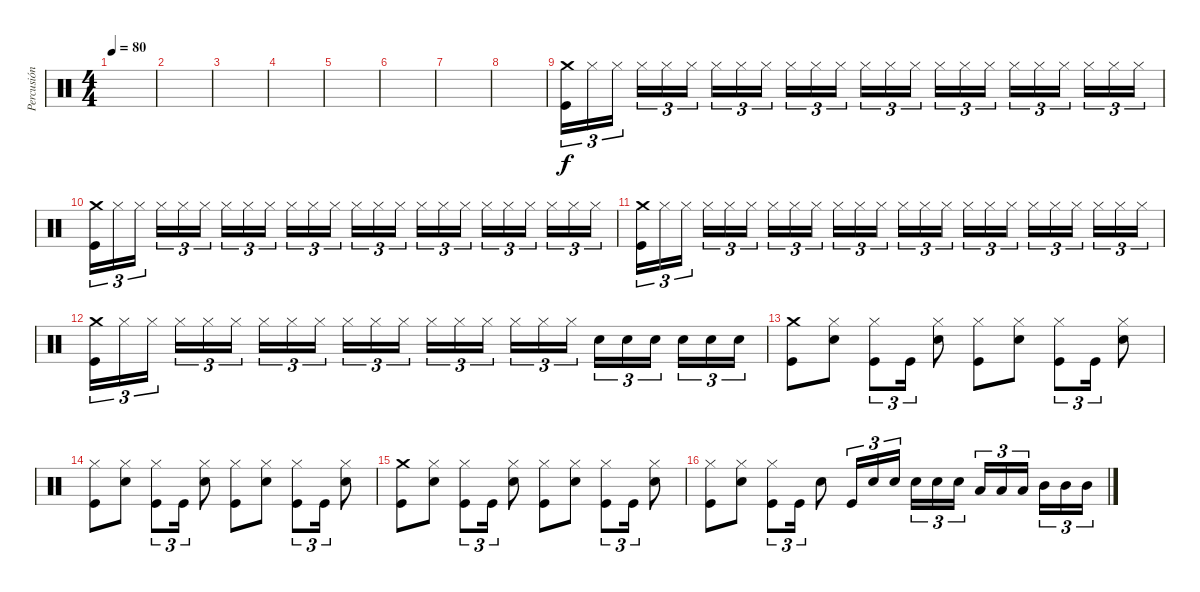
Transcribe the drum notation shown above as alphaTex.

\track ("Percusión" "Percusión") {mute instrument percussion}
\staff {score}
\articulation defaults
\ts (4 4)
\tempo 80
\clef neutral
\ks c
|
|
|
|
|
|
|
|
("Crash medium (hit)" "Kick (hit)").16{tu (3 2)} "Hi-Hat (closed)".16{tu (3 2)} "Hi-Hat (closed)".16{tu (3 2) beam splitsecondary} "Hi-Hat (closed)".16{tu (3 2)} "Hi-Hat (closed)".16{tu (3 2)} "Hi-Hat (closed)".16{tu (3 2)} "Hi-Hat (closed)".16{tu (3 2)} "Hi-Hat (closed)".16{tu (3 2)} "Hi-Hat (closed)".16{tu (3 2) beam splitsecondary} "Hi-Hat (closed)".16{tu (3 2)} "Hi-Hat (closed)".16{tu (3 2)} "Hi-Hat (closed)".16{tu (3 2)} "Hi-Hat (closed)".16{tu (3 2)} "Hi-Hat (closed)".16{tu (3 2)} "Hi-Hat (closed)".16{tu (3 2) beam splitsecondary} "Hi-Hat (closed)".16{tu (3 2)} "Hi-Hat (closed)".16{tu (3 2)} "Hi-Hat (closed)".16{tu (3 2)} "Hi-Hat (closed)".16{tu (3 2)} "Hi-Hat (closed)".16{tu (3 2)} "Hi-Hat (closed)".16{tu (3 2) beam splitsecondary} "Hi-Hat (closed)".16{tu (3 2)} "Hi-Hat (closed)".16{tu (3 2)} "Hi-Hat (closed)".16{tu (3 2)} |
("Crash medium (hit)" "Kick (hit)").16{tu (3 2)} "Hi-Hat (closed)".16{tu (3 2)} "Hi-Hat (closed)".16{tu (3 2) beam splitsecondary} "Hi-Hat (closed)".16{tu (3 2)} "Hi-Hat (closed)".16{tu (3 2)} "Hi-Hat (closed)".16{tu (3 2)} "Hi-Hat (closed)".16{tu (3 2)} "Hi-Hat (closed)".16{tu (3 2)} "Hi-Hat (closed)".16{tu (3 2) beam splitsecondary} "Hi-Hat (closed)".16{tu (3 2)} "Hi-Hat (closed)".16{tu (3 2)} "Hi-Hat (closed)".16{tu (3 2)} "Hi-Hat (closed)".16{tu (3 2)} "Hi-Hat (closed)".16{tu (3 2)} "Hi-Hat (closed)".16{tu (3 2) beam splitsecondary} "Hi-Hat (closed)".16{tu (3 2)} "Hi-Hat (closed)".16{tu (3 2)} "Hi-Hat (closed)".16{tu (3 2)} "Hi-Hat (closed)".16{tu (3 2)} "Hi-Hat (closed)".16{tu (3 2)} "Hi-Hat (closed)".16{tu (3 2) beam splitsecondary} "Hi-Hat (closed)".16{tu (3 2)} "Hi-Hat (closed)".16{tu (3 2)} "Hi-Hat (closed)".16{tu (3 2)} |
("Crash medium (hit)" "Kick (hit)").16{tu (3 2)} "Hi-Hat (closed)".16{tu (3 2)} "Hi-Hat (closed)".16{tu (3 2) beam splitsecondary} "Hi-Hat (closed)".16{tu (3 2)} "Hi-Hat (closed)".16{tu (3 2)} "Hi-Hat (closed)".16{tu (3 2)} "Hi-Hat (closed)".16{tu (3 2)} "Hi-Hat (closed)".16{tu (3 2)} "Hi-Hat (closed)".16{tu (3 2) beam splitsecondary} "Hi-Hat (closed)".16{tu (3 2)} "Hi-Hat (closed)".16{tu (3 2)} "Hi-Hat (closed)".16{tu (3 2)} "Hi-Hat (closed)".16{tu (3 2)} "Hi-Hat (closed)".16{tu (3 2)} "Hi-Hat (closed)".16{tu (3 2) beam splitsecondary} "Hi-Hat (closed)".16{tu (3 2)} "Hi-Hat (closed)".16{tu (3 2)} "Hi-Hat (closed)".16{tu (3 2)} "Hi-Hat (closed)".16{tu (3 2)} "Hi-Hat (closed)".16{tu (3 2)} "Hi-Hat (closed)".16{tu (3 2) beam splitsecondary} "Hi-Hat (closed)".16{tu (3 2)} "Hi-Hat (closed)".16{tu (3 2)} "Hi-Hat (closed)".16{tu (3 2)} |
("Crash medium (hit)" "Kick (hit)").16{tu (3 2)} "Hi-Hat (closed)".16{tu (3 2)} "Hi-Hat (closed)".16{tu (3 2) beam splitsecondary} "Hi-Hat (closed)".16{tu (3 2)} "Hi-Hat (closed)".16{tu (3 2)} "Hi-Hat (closed)".16{tu (3 2)} "Hi-Hat (closed)".16{tu (3 2)} "Hi-Hat (closed)".16{tu (3 2)} "Hi-Hat (closed)".16{tu (3 2) beam splitsecondary} "Hi-Hat (closed)".16{tu (3 2)} "Hi-Hat (closed)".16{tu (3 2)} "Hi-Hat (closed)".16{tu (3 2)} "Hi-Hat (closed)".16{tu (3 2)} "Hi-Hat (closed)".16{tu (3 2)} "Hi-Hat (closed)".16{tu (3 2) beam splitsecondary} "Hi-Hat (closed)".16{tu (3 2)} "Hi-Hat (closed)".16{tu (3 2)} "Hi-Hat (closed)".16{tu (3 2)} "Snare (hit) 2".16{tu (3 2)} "Snare (hit) 2".16{tu (3 2)} "Snare (hit) 2".16{tu (3 2) beam splitsecondary} "Snare (hit) 2".16{tu (3 2)} "Snare (hit) 2".16{tu (3 2)} "Snare (hit) 2".16{tu (3 2)} |
("Crash medium (hit)" "Kick (hit)").8 ("Hi-Hat (closed)" "Snare (hit) 2").8 ("Hi-Hat (closed)" "Kick (hit)").8{tu (3 2)} "Kick (hit)".16{tu (3 2)} ("Hi-Hat (closed)" "Snare (hit) 2").8 ("Hi-Hat (closed)" "Kick (hit)").8 ("Hi-Hat (closed)" "Snare (hit) 2").8 ("Hi-Hat (closed)" "Kick (hit)").8{tu (3 2)} "Kick (hit)".16{tu (3 2)} ("Hi-Hat (closed)" "Snare (hit) 2").8 |
("Hi-Hat (closed)" "Kick (hit)").8 ("Hi-Hat (closed)" "Snare (hit) 2").8 ("Hi-Hat (closed)" "Kick (hit)").8{tu (3 2)} "Kick (hit)".16{tu (3 2)} ("Hi-Hat (closed)" "Snare (hit) 2").8 ("Hi-Hat (closed)" "Kick (hit)").8 ("Hi-Hat (closed)" "Snare (hit) 2").8 ("Hi-Hat (closed)" "Kick (hit)").8{tu (3 2)} "Kick (hit)".16{tu (3 2)} ("Hi-Hat (closed)" "Snare (hit) 2").8 |
("Crash medium (hit)" "Kick (hit)").8 ("Hi-Hat (closed)" "Snare (hit) 2").8 ("Hi-Hat (closed)" "Kick (hit)").8{tu (3 2)} "Kick (hit)".16{tu (3 2)} ("Hi-Hat (closed)" "Snare (hit) 2").8 ("Hi-Hat (closed)" "Kick (hit)").8 ("Hi-Hat (closed)" "Snare (hit) 2").8 ("Hi-Hat (closed)" "Kick (hit)").8{tu (3 2)} "Kick (hit)".16{tu (3 2)} ("Hi-Hat (closed)" "Snare (hit) 2").8 |
("Hi-Hat (closed)" "Kick (hit)").8 ("Hi-Hat (closed)" "Snare (hit) 2").8 ("Hi-Hat (closed)" "Kick (hit)").8{tu (3 2)} "Kick (hit)".16{tu (3 2)} "Snare (hit) 2".8 "Kick (hit)".16{tu (3 2)} "Snare (hit) 2".16{tu (3 2)} "Snare (hit) 2".16{tu (3 2) beam splitsecondary} "Snare (hit) 2".16{tu (3 2)} "Snare (hit) 2".16{tu (3 2)} "Snare (hit) 2".16{tu (3 2)} "Low Tom (hit)".16{tu (3 2)} "Low Tom (hit)".16{tu (3 2)} "Low Tom (hit)".16{tu (3 2) beam splitsecondary} "Mid Tom (hit)".16{tu (3 2)} "Mid Tom (hit)".16{tu (3 2)} "Mid Tom (hit)".16{tu (3 2)}
